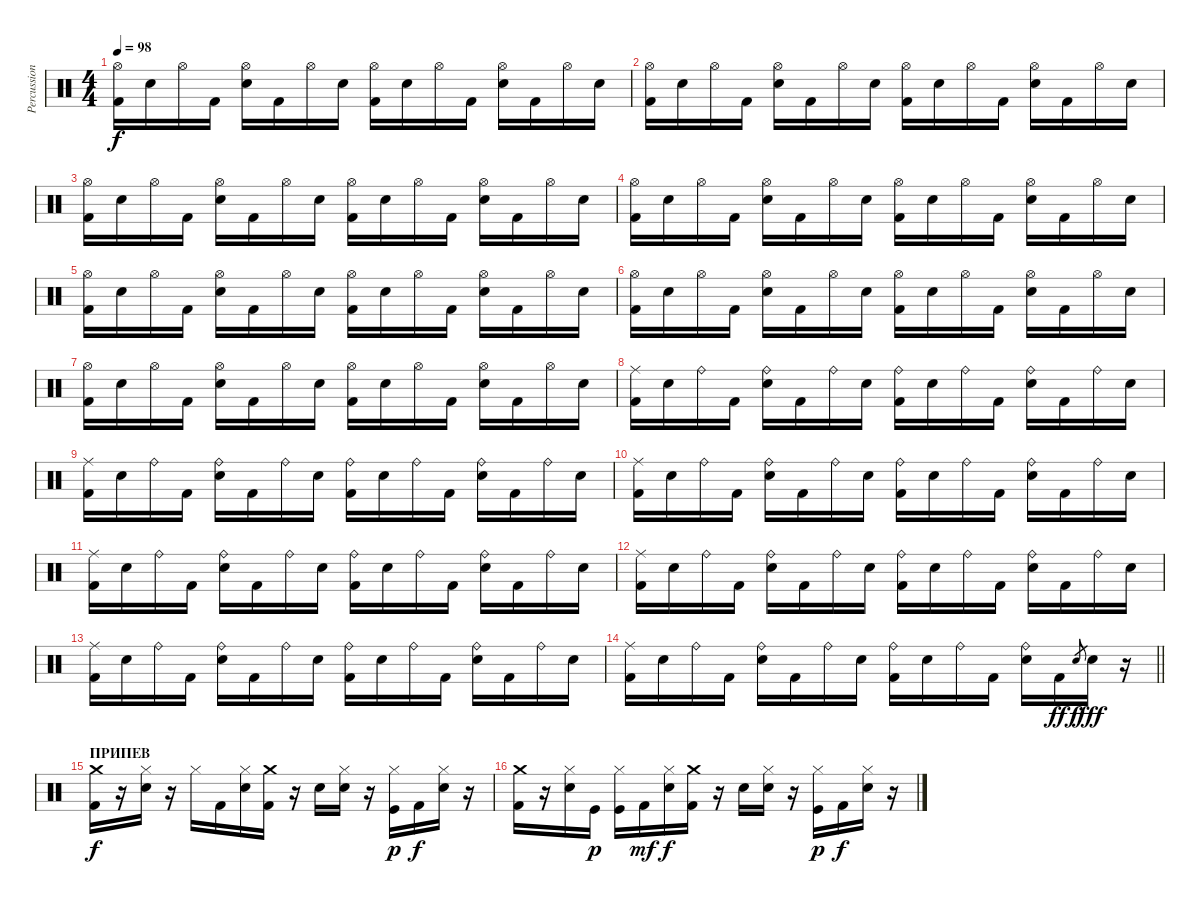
\track ("Percussion" "Percussion") {instrument percussion}
\staff {score}
\articulation defaults
\ts (4 4)
\tempo 98
\clef neutral
\ks c
("Hi-Hat (open)" "Kick (hit) 2").16{dy f} "Electric Snare (hit)".16 "Hi-Hat (open)".16 "Kick (hit) 2".16 ("Hi-Hat (open)" "Electric Snare (hit)").16 "Kick (hit) 2".16 "Hi-Hat (open)".16 "Electric Snare (hit)".16 ("Hi-Hat (open)" "Kick (hit) 2").16 "Electric Snare (hit)".16 "Hi-Hat (open)".16 "Kick (hit) 2".16 ("Hi-Hat (open)" "Electric Snare (hit)").16 "Kick (hit) 2".16 "Hi-Hat (open)".16 "Electric Snare (hit)".16 |
("Hi-Hat (open)" "Kick (hit) 2").16 "Electric Snare (hit)".16 "Hi-Hat (open)".16 "Kick (hit) 2".16 ("Hi-Hat (open)" "Electric Snare (hit)").16 "Kick (hit) 2".16 "Hi-Hat (open)".16 "Electric Snare (hit)".16 ("Hi-Hat (open)" "Kick (hit) 2").16 "Electric Snare (hit)".16 "Hi-Hat (open)".16 "Kick (hit) 2".16 ("Hi-Hat (open)" "Electric Snare (hit)").16 "Kick (hit) 2".16 "Hi-Hat (open)".16 "Electric Snare (hit)".16 |
("Hi-Hat (open)" "Kick (hit) 2").16 "Electric Snare (hit)".16 "Hi-Hat (open)".16 "Kick (hit) 2".16 ("Hi-Hat (open)" "Electric Snare (hit)").16 "Kick (hit) 2".16 "Hi-Hat (open)".16 "Electric Snare (hit)".16 ("Hi-Hat (open)" "Kick (hit) 2").16 "Electric Snare (hit)".16 "Hi-Hat (open)".16 "Kick (hit) 2".16 ("Hi-Hat (open)" "Electric Snare (hit)").16 "Kick (hit) 2".16 "Hi-Hat (open)".16 "Electric Snare (hit)".16 |
("Hi-Hat (open)" "Kick (hit) 2").16 "Electric Snare (hit)".16 "Hi-Hat (open)".16 "Kick (hit) 2".16 ("Hi-Hat (open)" "Electric Snare (hit)").16 "Kick (hit) 2".16 "Hi-Hat (open)".16 "Electric Snare (hit)".16 ("Hi-Hat (open)" "Kick (hit) 2").16 "Electric Snare (hit)".16 "Hi-Hat (open)".16 "Kick (hit) 2".16 ("Hi-Hat (open)" "Electric Snare (hit)").16 "Kick (hit) 2".16 "Hi-Hat (open)".16 "Electric Snare (hit)".16 |
("Hi-Hat (open)" "Kick (hit) 2").16 "Electric Snare (hit)".16 "Hi-Hat (open)".16 "Kick (hit) 2".16 ("Hi-Hat (open)" "Electric Snare (hit)").16 "Kick (hit) 2".16 "Hi-Hat (open)".16 "Electric Snare (hit)".16 ("Hi-Hat (open)" "Kick (hit) 2").16 "Electric Snare (hit)".16 "Hi-Hat (open)".16 "Kick (hit) 2".16 ("Hi-Hat (open)" "Electric Snare (hit)").16 "Kick (hit) 2".16 "Hi-Hat (open)".16 "Electric Snare (hit)".16 |
("Hi-Hat (open)" "Kick (hit) 2").16 "Electric Snare (hit)".16 "Hi-Hat (open)".16 "Kick (hit) 2".16 ("Hi-Hat (open)" "Electric Snare (hit)").16 "Kick (hit) 2".16 "Hi-Hat (open)".16 "Electric Snare (hit)".16 ("Hi-Hat (open)" "Kick (hit) 2").16 "Electric Snare (hit)".16 "Hi-Hat (open)".16 "Kick (hit) 2".16 ("Hi-Hat (open)" "Electric Snare (hit)").16 "Kick (hit) 2".16 "Hi-Hat (open)".16 "Electric Snare (hit)".16 |
("Hi-Hat (open)" "Kick (hit) 2").16 "Electric Snare (hit)".16 "Hi-Hat (open)".16 "Kick (hit) 2".16 ("Hi-Hat (open)" "Electric Snare (hit)").16 "Kick (hit) 2".16 "Hi-Hat (open)".16 "Electric Snare (hit)".16 ("Hi-Hat (open)" "Kick (hit) 2").16 "Electric Snare (hit)".16 "Hi-Hat (open)".16 "Kick (hit) 2".16 ("Hi-Hat (open)" "Electric Snare (hit)").16 "Kick (hit) 2".16 "Hi-Hat (open)".16 "Electric Snare (hit)".16 |
("Ride (middle)" "Kick (hit) 2").16 "Electric Snare (hit)".16 "Ride (bell)".16 "Kick (hit) 2".16 ("Ride (bell)" "Electric Snare (hit)").16 "Kick (hit) 2".16 "Ride (bell)".16 "Electric Snare (hit)".16 ("Ride (bell)" "Kick (hit) 2").16 "Electric Snare (hit)".16 "Ride (bell)".16 "Kick (hit) 2".16 ("Ride (bell)" "Electric Snare (hit)").16 "Kick (hit) 2".16 "Ride (bell)".16 "Electric Snare (hit)".16 |
("Ride (middle)" "Kick (hit) 2").16 "Electric Snare (hit)".16 "Ride (bell)".16 "Kick (hit) 2".16 ("Ride (bell)" "Electric Snare (hit)").16 "Kick (hit) 2".16 "Ride (bell)".16 "Electric Snare (hit)".16 ("Ride (bell)" "Kick (hit) 2").16 "Electric Snare (hit)".16 "Ride (bell)".16 "Kick (hit) 2".16 ("Ride (bell)" "Electric Snare (hit)").16 "Kick (hit) 2".16 "Ride (bell)".16 "Electric Snare (hit)".16 |
("Ride (middle)" "Kick (hit) 2").16 "Electric Snare (hit)".16 "Ride (bell)".16 "Kick (hit) 2".16 ("Ride (bell)" "Electric Snare (hit)").16 "Kick (hit) 2".16 "Ride (bell)".16 "Electric Snare (hit)".16 ("Ride (bell)" "Kick (hit) 2").16 "Electric Snare (hit)".16 "Ride (bell)".16 "Kick (hit) 2".16 ("Ride (bell)" "Electric Snare (hit)").16 "Kick (hit) 2".16 "Ride (bell)".16 "Electric Snare (hit)".16 |
("Ride (middle)" "Kick (hit) 2").16 "Electric Snare (hit)".16 "Ride (bell)".16 "Kick (hit) 2".16 ("Ride (bell)" "Electric Snare (hit)").16 "Kick (hit) 2".16 "Ride (bell)".16 "Electric Snare (hit)".16 ("Ride (bell)" "Kick (hit) 2").16 "Electric Snare (hit)".16 "Ride (bell)".16 "Kick (hit) 2".16 ("Ride (bell)" "Electric Snare (hit)").16 "Kick (hit) 2".16 "Ride (bell)".16 "Electric Snare (hit)".16 |
("Ride (middle)" "Kick (hit) 2").16 "Electric Snare (hit)".16 "Ride (bell)".16 "Kick (hit) 2".16 ("Ride (bell)" "Electric Snare (hit)").16 "Kick (hit) 2".16 "Ride (bell)".16 "Electric Snare (hit)".16 ("Ride (bell)" "Kick (hit) 2").16 "Electric Snare (hit)".16 "Ride (bell)".16 "Kick (hit) 2".16 ("Ride (bell)" "Electric Snare (hit)").16 "Kick (hit) 2".16 "Ride (bell)".16 "Electric Snare (hit)".16 |
("Ride (middle)" "Kick (hit) 2").16 "Electric Snare (hit)".16 "Ride (bell)".16 "Kick (hit) 2".16 ("Ride (bell)" "Electric Snare (hit)").16 "Kick (hit) 2".16 "Ride (bell)".16 "Electric Snare (hit)".16 ("Ride (bell)" "Kick (hit) 2").16 "Electric Snare (hit)".16 "Ride (bell)".16 "Kick (hit) 2".16 ("Ride (bell)" "Electric Snare (hit)").16 "Kick (hit) 2".16 "Ride (bell)".16 "Electric Snare (hit)".16 |
\barLineRight lightlight
("Ride (middle)" "Kick (hit) 2").16 "Electric Snare (hit)".16 "Ride (bell)".16 "Kick (hit) 2".16 ("Ride (bell)" "Electric Snare (hit)").16 "Kick (hit) 2".16 "Ride (bell)".16 "Electric Snare (hit)".16 ("Ride (bell)" "Kick (hit) 2").16 "Electric Snare (hit)".16 "Ride (bell)".16 "Kick (hit) 2".16 ("Ride (bell)" "Electric Snare (hit)").16 "Kick (hit) 2".16{dy ff} "Electric Snare (hit)".8{gr dy f} "Electric Snare (hit)".16{dy fff} r.16 |
\section ("" "ПРИПЕВ")
("Crash medium (hit)" "Kick (hit) 2").16{dy f} r.16 ("Hi-Hat (closed)" "Electric Snare (hit)").16 r.16 "Hi-Hat (closed)".16 "Kick (hit) 2".16 ("Hi-Hat (closed)" "Electric Snare (hit)").16 ("Crash medium (hit)" "Kick (hit) 2").16 r.16 "Snare (hit)".16 ("Hi-Hat (closed)" "Electric Snare (hit)").16 r.16 ("Hi-Hat (closed)" "Kick (hit)").16{dy p} "Kick (hit) 2".16{dy f} ("Hi-Hat (closed)" "Electric Snare (hit)").16 r.16 |
("Crash medium (hit)" "Kick (hit) 2").16 r.16 ("Hi-Hat (closed)" "Electric Snare (hit)").16 "Kick (hit)".16{dy p} ("Hi-Hat (closed)" "Kick (hit)").16 "Kick (hit) 2".16{dy mf} ("Hi-Hat (closed)" "Electric Snare (hit)").16{dy f} ("Crash medium (hit)" "Kick (hit) 2").16 r.16 "Snare (hit)".16 ("Hi-Hat (closed)" "Electric Snare (hit)").16 r.16 ("Hi-Hat (closed)" "Kick (hit)").16{dy p} "Kick (hit) 2".16{dy f} ("Hi-Hat (closed)" "Electric Snare (hit)").16 r.16
